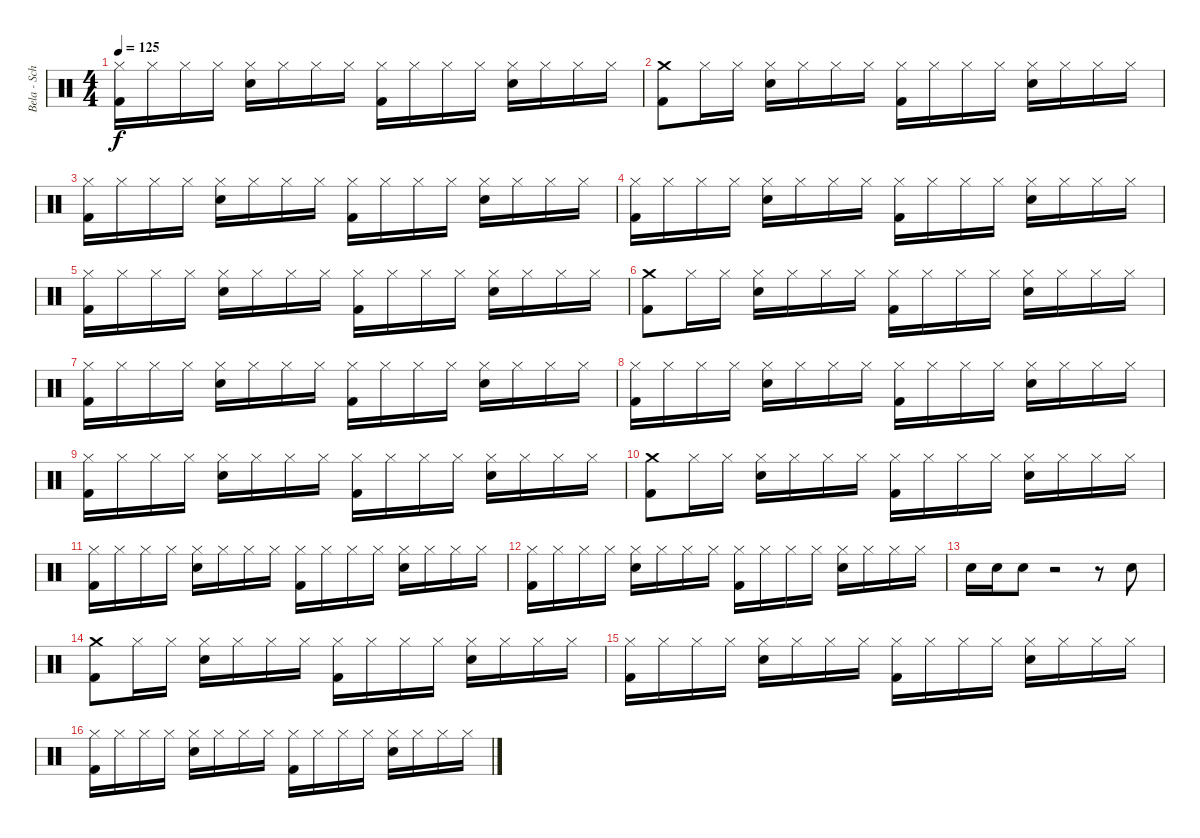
\track ("Bela - Schlagzeug" "Bela - Sch") {instrument percussion}
\staff {score}
\articulation defaults
\ts (4 4)
\tempo 125
\clef neutral
\ks c
("Hi-Hat (closed)" "Kick (hit) 2").16{dy f} "Hi-Hat (closed)".16 "Hi-Hat (closed)".16 "Hi-Hat (closed)".16 ("Hi-Hat (closed)" "Electric Snare (hit)").16 "Hi-Hat (closed)".16 "Hi-Hat (closed)".16 "Hi-Hat (closed)".16 ("Hi-Hat (closed)" "Kick (hit) 2").16 "Hi-Hat (closed)".16 "Hi-Hat (closed)".16 "Hi-Hat (closed)".16 ("Hi-Hat (closed)" "Electric Snare (hit)").16 "Hi-Hat (closed)".16 "Hi-Hat (closed)".16 "Hi-Hat (closed)".16 |
("Crash medium (hit)" "Kick (hit) 2").8 "Hi-Hat (closed)".16 "Hi-Hat (closed)".16 ("Hi-Hat (closed)" "Electric Snare (hit)").16 "Hi-Hat (closed)".16 "Hi-Hat (closed)".16 "Hi-Hat (closed)".16 ("Hi-Hat (closed)" "Kick (hit) 2").16 "Hi-Hat (closed)".16 "Hi-Hat (closed)".16 "Hi-Hat (closed)".16 ("Hi-Hat (closed)" "Electric Snare (hit)").16 "Hi-Hat (closed)".16 "Hi-Hat (closed)".16 "Hi-Hat (closed)".16 |
("Hi-Hat (closed)" "Kick (hit) 2").16 "Hi-Hat (closed)".16 "Hi-Hat (closed)".16 "Hi-Hat (closed)".16 ("Hi-Hat (closed)" "Electric Snare (hit)").16 "Hi-Hat (closed)".16 "Hi-Hat (closed)".16 "Hi-Hat (closed)".16 ("Hi-Hat (closed)" "Kick (hit) 2").16 "Hi-Hat (closed)".16 "Hi-Hat (closed)".16 "Hi-Hat (closed)".16 ("Hi-Hat (closed)" "Electric Snare (hit)").16 "Hi-Hat (closed)".16 "Hi-Hat (closed)".16 "Hi-Hat (closed)".16 |
("Hi-Hat (closed)" "Kick (hit) 2").16 "Hi-Hat (closed)".16 "Hi-Hat (closed)".16 "Hi-Hat (closed)".16 ("Hi-Hat (closed)" "Electric Snare (hit)").16 "Hi-Hat (closed)".16 "Hi-Hat (closed)".16 "Hi-Hat (closed)".16 ("Hi-Hat (closed)" "Kick (hit) 2").16 "Hi-Hat (closed)".16 "Hi-Hat (closed)".16 "Hi-Hat (closed)".16 ("Hi-Hat (closed)" "Electric Snare (hit)").16 "Hi-Hat (closed)".16 "Hi-Hat (closed)".16 "Hi-Hat (closed)".16 |
("Hi-Hat (closed)" "Kick (hit) 2").16 "Hi-Hat (closed)".16 "Hi-Hat (closed)".16 "Hi-Hat (closed)".16 ("Hi-Hat (closed)" "Electric Snare (hit)").16 "Hi-Hat (closed)".16 "Hi-Hat (closed)".16 "Hi-Hat (closed)".16 ("Hi-Hat (closed)" "Kick (hit) 2").16 "Hi-Hat (closed)".16 "Hi-Hat (closed)".16 "Hi-Hat (closed)".16 ("Hi-Hat (closed)" "Electric Snare (hit)").16 "Hi-Hat (closed)".16 "Hi-Hat (closed)".16 "Hi-Hat (closed)".16 |
("Crash medium (hit)" "Kick (hit) 2").8 "Hi-Hat (closed)".16 "Hi-Hat (closed)".16 ("Hi-Hat (closed)" "Electric Snare (hit)").16 "Hi-Hat (closed)".16 "Hi-Hat (closed)".16 "Hi-Hat (closed)".16 ("Hi-Hat (closed)" "Kick (hit) 2").16 "Hi-Hat (closed)".16 "Hi-Hat (closed)".16 "Hi-Hat (closed)".16 ("Hi-Hat (closed)" "Electric Snare (hit)").16 "Hi-Hat (closed)".16 "Hi-Hat (closed)".16 "Hi-Hat (closed)".16 |
("Hi-Hat (closed)" "Kick (hit) 2").16 "Hi-Hat (closed)".16 "Hi-Hat (closed)".16 "Hi-Hat (closed)".16 ("Hi-Hat (closed)" "Electric Snare (hit)").16 "Hi-Hat (closed)".16 "Hi-Hat (closed)".16 "Hi-Hat (closed)".16 ("Hi-Hat (closed)" "Kick (hit) 2").16 "Hi-Hat (closed)".16 "Hi-Hat (closed)".16 "Hi-Hat (closed)".16 ("Hi-Hat (closed)" "Electric Snare (hit)").16 "Hi-Hat (closed)".16 "Hi-Hat (closed)".16 "Hi-Hat (closed)".16 |
("Hi-Hat (closed)" "Kick (hit) 2").16 "Hi-Hat (closed)".16 "Hi-Hat (closed)".16 "Hi-Hat (closed)".16 ("Hi-Hat (closed)" "Electric Snare (hit)").16 "Hi-Hat (closed)".16 "Hi-Hat (closed)".16 "Hi-Hat (closed)".16 ("Hi-Hat (closed)" "Kick (hit) 2").16 "Hi-Hat (closed)".16 "Hi-Hat (closed)".16 "Hi-Hat (closed)".16 ("Hi-Hat (closed)" "Electric Snare (hit)").16 "Hi-Hat (closed)".16 "Hi-Hat (closed)".16 "Hi-Hat (closed)".16 |
("Hi-Hat (closed)" "Kick (hit) 2").16 "Hi-Hat (closed)".16 "Hi-Hat (closed)".16 "Hi-Hat (closed)".16 ("Hi-Hat (closed)" "Electric Snare (hit)").16 "Hi-Hat (closed)".16 "Hi-Hat (closed)".16 "Hi-Hat (closed)".16 ("Hi-Hat (closed)" "Kick (hit) 2").16 "Hi-Hat (closed)".16 "Hi-Hat (closed)".16 "Hi-Hat (closed)".16 ("Hi-Hat (closed)" "Electric Snare (hit)").16 "Hi-Hat (closed)".16 "Hi-Hat (closed)".16 "Hi-Hat (closed)".16 |
("Crash medium (hit)" "Kick (hit) 2").8 "Hi-Hat (closed)".16 "Hi-Hat (closed)".16 ("Hi-Hat (closed)" "Electric Snare (hit)").16 "Hi-Hat (closed)".16 "Hi-Hat (closed)".16 "Hi-Hat (closed)".16 ("Hi-Hat (closed)" "Kick (hit) 2").16 "Hi-Hat (closed)".16 "Hi-Hat (closed)".16 "Hi-Hat (closed)".16 ("Hi-Hat (closed)" "Electric Snare (hit)").16 "Hi-Hat (closed)".16 "Hi-Hat (closed)".16 "Hi-Hat (closed)".16 |
("Hi-Hat (closed)" "Kick (hit) 2").16 "Hi-Hat (closed)".16 "Hi-Hat (closed)".16 "Hi-Hat (closed)".16 ("Hi-Hat (closed)" "Electric Snare (hit)").16 "Hi-Hat (closed)".16 "Hi-Hat (closed)".16 "Hi-Hat (closed)".16 ("Hi-Hat (closed)" "Kick (hit) 2").16 "Hi-Hat (closed)".16 "Hi-Hat (closed)".16 "Hi-Hat (closed)".16 ("Hi-Hat (closed)" "Electric Snare (hit)").16 "Hi-Hat (closed)".16 "Hi-Hat (closed)".16 "Hi-Hat (closed)".16 |
("Hi-Hat (closed)" "Kick (hit) 2").16 "Hi-Hat (closed)".16 "Hi-Hat (closed)".16 "Hi-Hat (closed)".16 ("Hi-Hat (closed)" "Electric Snare (hit)").16 "Hi-Hat (closed)".16 "Hi-Hat (closed)".16 "Hi-Hat (closed)".16 ("Hi-Hat (closed)" "Kick (hit) 2").16 "Hi-Hat (closed)".16 "Hi-Hat (closed)".16 "Hi-Hat (closed)".16 ("Hi-Hat (closed)" "Electric Snare (hit)").16 "Hi-Hat (closed)".16 "Hi-Hat (closed)".16 "Hi-Hat (closed)".16 |
"Electric Snare (hit)".16 "Electric Snare (hit)".16 "Electric Snare (hit)".8 r.2 r.8 "Electric Snare (hit)".8 |
("Crash medium (hit)" "Kick (hit) 2").8 "Hi-Hat (closed)".16 "Hi-Hat (closed)".16 ("Hi-Hat (closed)" "Electric Snare (hit)").16 "Hi-Hat (closed)".16 "Hi-Hat (closed)".16 "Hi-Hat (closed)".16 ("Hi-Hat (closed)" "Kick (hit) 2").16 "Hi-Hat (closed)".16 "Hi-Hat (closed)".16 "Hi-Hat (closed)".16 ("Hi-Hat (closed)" "Electric Snare (hit)").16 "Hi-Hat (closed)".16 "Hi-Hat (closed)".16 "Hi-Hat (closed)".16 |
("Hi-Hat (closed)" "Kick (hit) 2").16 "Hi-Hat (closed)".16 "Hi-Hat (closed)".16 "Hi-Hat (closed)".16 ("Hi-Hat (closed)" "Electric Snare (hit)").16 "Hi-Hat (closed)".16 "Hi-Hat (closed)".16 "Hi-Hat (closed)".16 ("Hi-Hat (closed)" "Kick (hit) 2").16 "Hi-Hat (closed)".16 "Hi-Hat (closed)".16 "Hi-Hat (closed)".16 ("Hi-Hat (closed)" "Electric Snare (hit)").16 "Hi-Hat (closed)".16 "Hi-Hat (closed)".16 "Hi-Hat (closed)".16 |
("Hi-Hat (closed)" "Kick (hit) 2").16 "Hi-Hat (closed)".16 "Hi-Hat (closed)".16 "Hi-Hat (closed)".16 ("Hi-Hat (closed)" "Electric Snare (hit)").16 "Hi-Hat (closed)".16 "Hi-Hat (closed)".16 "Hi-Hat (closed)".16 ("Hi-Hat (closed)" "Kick (hit) 2").16 "Hi-Hat (closed)".16 "Hi-Hat (closed)".16 "Hi-Hat (closed)".16 ("Hi-Hat (closed)" "Electric Snare (hit)").16 "Hi-Hat (closed)".16 "Hi-Hat (closed)".16 "Hi-Hat (closed)".16
